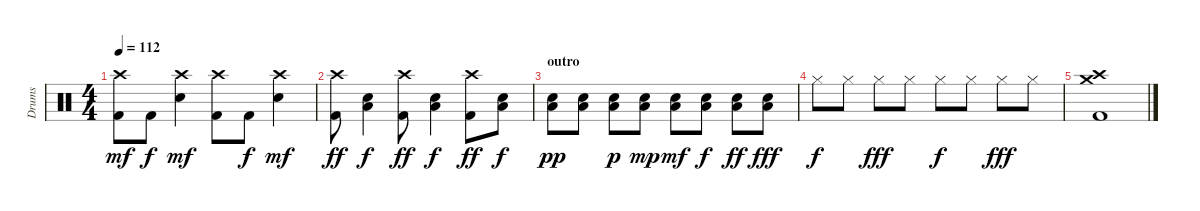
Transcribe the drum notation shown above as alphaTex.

\track ("Drums" "Drums") {instrument percussion}
\staff {score}
\articulation defaults
\ts (4 4)
\tempo 112
\clef neutral
\ks c
("Crash high (hit)" "Kick (hit) 2").8{dy mf} "Kick (hit) 2".8{dy f} ("Crash high (hit)" "Electric Snare (hit)").4{dy mf} ("Crash high (hit)" "Kick (hit) 2").8 "Kick (hit) 2".8{dy f} ("Crash high (hit)" "Electric Snare (hit)").4{dy mf} |
("Crash high (hit)" "Kick (hit) 2").8{dy ff} ("Low Floor Tom (hit)" "Electric Snare (hit)").4{dy f} ("Crash high (hit)" "Kick (hit) 2").8{dy ff} ("Electric Snare (hit)" "Low Floor Tom (hit)").4{dy f} ("Crash high (hit)" "Kick (hit) 2").8{dy ff} ("Electric Snare (hit)" "Low Floor Tom (hit)").8{dy f} |
\section ("" "outro")
("Electric Snare (hit)" "Low Floor Tom (hit)").8{dy pp} ("Electric Snare (hit)" "Low Floor Tom (hit)").8 ("Electric Snare (hit)" "Low Floor Tom (hit)").8{dy p} ("Electric Snare (hit)" "Low Floor Tom (hit)").8{dy mp} ("Electric Snare (hit)" "Low Floor Tom (hit)").8{dy mf} ("Electric Snare (hit)" "Low Floor Tom (hit)").8{dy f} ("Electric Snare (hit)" "Low Floor Tom (hit)").8{dy ff} ("Electric Snare (hit)" "Low Floor Tom (hit)").8{dy fff} |
"Hi-Hat (closed)".8{dy f} "Hi-Hat (closed)".8 "Hi-Hat (closed)".8{dy fff} "Hi-Hat (closed)".8 "Hi-Hat (closed)".8{dy f} "Hi-Hat (closed)".8 "Hi-Hat (closed)".8{dy fff} "Hi-Hat (closed)".8 |
("Crash high (hit)" "Crash medium (hit)" "Kick (hit) 2").1
